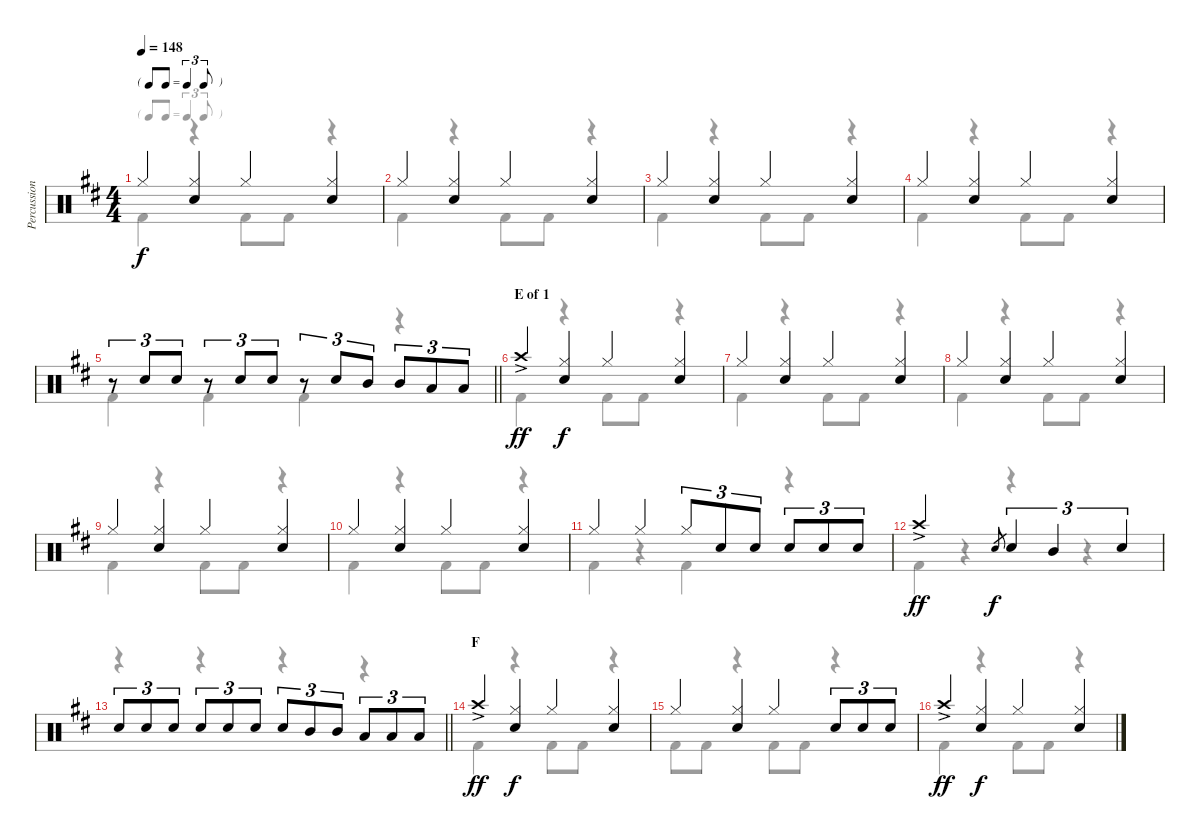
\track ("Percussion" "Percussion") {instrument percussion}
\staff {score}
\articulation defaults
\voice
\ts (4 4)
\tf triplet8th
\tempo 148
\clef neutral
\ks bminor "Hi-Hat (closed)".4{dy f}
("Hi-Hat (closed)" "Snare (hit) 2").4 "Hi-Hat (closed)".4 ("Hi-Hat (closed)" "Snare (hit) 2").4 |
"Hi-Hat (closed)".4 ("Hi-Hat (closed)" "Snare (hit) 2").4 "Hi-Hat (closed)".4 ("Hi-Hat (closed)" "Snare (hit) 2").4 |
"Hi-Hat (closed)".4 ("Hi-Hat (closed)" "Snare (hit) 2").4 "Hi-Hat (closed)".4 ("Hi-Hat (closed)" "Snare (hit) 2").4 |
"Hi-Hat (closed)".4 ("Hi-Hat (closed)" "Snare (hit) 2").4 "Hi-Hat (closed)".4 ("Hi-Hat (closed)" "Snare (hit) 2").4 |
\barLineRight lightlight
r.8{tu (3 2)} "Snare (hit) 2".8{tu (3 2)} "Snare (hit) 2".8{tu (3 2)} r.8{tu (3 2)} "Snare (hit) 2".8{tu (3 2)} "Snare (hit) 2".8{tu (3 2)} r.8{tu (3 2)} "Snare (hit) 2".8{tu (3 2)} "Mid Tom (hit)".8{tu (3 2)} "Mid Tom (hit)".8{tu (3 2)} "Low Tom (hit)".8{tu (3 2)} "Low Tom (hit)".8{tu (3 2)} |
\section ("" "E of 1")
"Crash high (hit)"{ac}.4{dy ff} ("Hi-Hat (closed)" "Snare (hit) 2").4{dy f} "Hi-Hat (closed)".4 ("Hi-Hat (closed)" "Snare (hit) 2").4 |
"Hi-Hat (closed)".4 ("Hi-Hat (closed)" "Snare (hit) 2").4 "Hi-Hat (closed)".4 ("Hi-Hat (closed)" "Snare (hit) 2").4 |
"Hi-Hat (closed)".4 ("Hi-Hat (closed)" "Snare (hit) 2").4 "Hi-Hat (closed)".4 ("Hi-Hat (closed)" "Snare (hit) 2").4 |
"Hi-Hat (closed)".4 ("Hi-Hat (closed)" "Snare (hit) 2").4 "Hi-Hat (closed)".4 ("Hi-Hat (closed)" "Snare (hit) 2").4 |
"Hi-Hat (closed)".4 ("Hi-Hat (closed)" "Snare (hit) 2").4 "Hi-Hat (closed)".4 ("Hi-Hat (closed)" "Snare (hit) 2").4 |
"Hi-Hat (closed)".4 "Hi-Hat (closed)".4 "Hi-Hat (closed)".8{tu (3 2)} "Snare (hit) 2".8{tu (3 2)} "Snare (hit) 2".8{tu (3 2)} "Snare (hit) 2".8{tu (3 2)} "Snare (hit) 2".8{tu (3 2)} "Snare (hit) 2".8{tu (3 2)} |
"Crash high (hit)"{ac}.2{dy ff} "Snare (hit) 2".8{gr dy f} "Snare (hit) 2".4{tu (3 2)} "Mid Tom (hit)".4{tu (3 2)} "Snare (hit) 2".4{tu (3 2)} |
\barLineRight lightlight "Snare (hit) 2".8{tu (3 2)} "Snare (hit) 2".8{tu (3 2)} "Snare (hit) 2".8{tu (3 2)} "Snare (hit) 2".8{tu (3 2)} "Snare (hit) 2".8{tu (3 2)} "Snare (hit) 2".8{tu (3 2)} "Snare (hit) 2".8{tu (3 2)} "Mid Tom (hit)".8{tu (3 2)} "Mid Tom (hit)".8{tu (3 2)} "Low Tom (hit)".8{tu (3 2)} "Low Tom (hit)".8{tu (3 2)} "Low Tom (hit)".8{tu (3 2)}
|
\section ("" "F")
"Crash high (hit)"{ac}.4{dy ff} ("Hi-Hat (closed)" "Snare (hit) 2").4{dy f} "Hi-Hat (closed)".4 ("Hi-Hat (closed)" "Snare (hit) 2").4 |
"Hi-Hat (closed)".4 ("Hi-Hat (closed)" "Snare (hit) 2").4 "Hi-Hat (closed)".4 "Snare (hit) 2".8{tu (3 2)} "Snare (hit) 2".8{tu (3 2)} "Snare (hit) 2".8{tu (3 2)} |
"Crash high (hit)"{ac}.4{dy ff} ("Hi-Hat (closed)" "Snare (hit) 2").4{dy f} "Hi-Hat (closed)".4 ("Hi-Hat (closed)" "Snare (hit) 2").4
\voice
\clef neutral
\ottava regular
\simile none
\ks bminor "Kick (hit) 2".4{dy f}
r.4 "Kick (hit) 2".8 "Kick (hit) 2".8 r.4 |
"Kick (hit) 2".4 r.4 "Kick (hit) 2".8 "Kick (hit) 2".8 r.4 |
"Kick (hit) 2".4 r.4 "Kick (hit) 2".8 "Kick (hit) 2".8 r.4 |
"Kick (hit) 2".4 r.4 "Kick (hit) 2".8 "Kick (hit) 2".8 r.4 |
\barLineRight lightlight "Kick (hit) 2".4 "Kick (hit) 2".4 "Kick (hit) 2".4
r.4 |
"Kick (hit) 2".4 r.4 "Kick (hit) 2".8 "Kick (hit) 2".8 r.4 |
"Kick (hit) 2".4 r.4 "Kick (hit) 2".8 "Kick (hit) 2".8 r.4 |
"Kick (hit) 2".4 r.4 "Kick (hit) 2".8 "Kick (hit) 2".8 r.4 |
"Kick (hit) 2".4 r.4 "Kick (hit) 2".8 "Kick (hit) 2".8 r.4 |
"Kick (hit) 2".4 r.4 "Kick (hit) 2".8 "Kick (hit) 2".8 r.4 |
"Kick (hit) 2".4 r.4 "Kick (hit) 2".4 r.4 |
"Kick (hit) 2".4 r.4 r.4 r.4 |
\barLineRight lightlight
r.4 r.4 r.4 r.4 |
"Kick (hit) 2".4 r.4 "Kick (hit) 2".8 "Kick (hit) 2".8 r.4 |
"Kick (hit) 2".8 "Kick (hit) 2".8 r.4 "Kick (hit) 2".8 "Kick (hit) 2".8 r.4 |
"Kick (hit) 2".4 r.4 "Kick (hit) 2".8 "Kick (hit) 2".8 r.4
